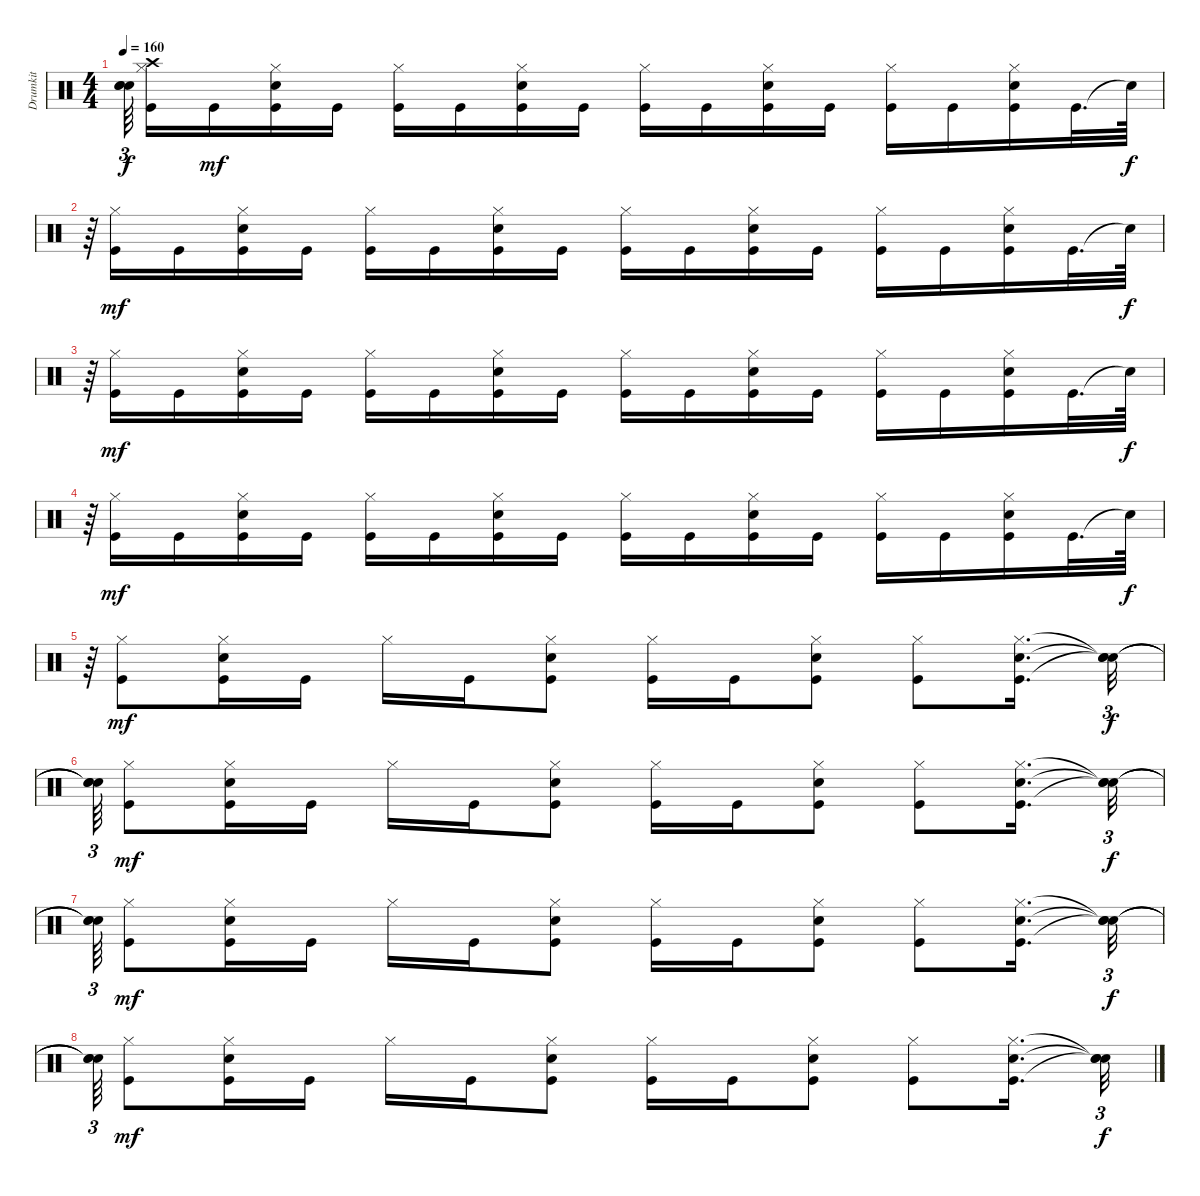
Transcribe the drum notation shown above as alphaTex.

\track ("Drumkit" "Drumkit") {instrument percussion}
\staff {score}
\articulation defaults
\ts (4 4)
\tempo 160
\clef neutral
\ks c
("Snare (hit)"{t} "Snare (hit)"{t} "Snare (hit)"{t}).64{tu (3 2) dy f beam splitsecondary} ("Crash high (hit)" "Kick (hit)" "Hi-Hat (closed)").16 "Kick (hit)".16{dy mf} ("Kick (hit)" "Snare (hit) 2" "Hi-Hat (closed)").16 "Kick (hit)".16 ("Kick (hit)" "Hi-Hat (closed)").16 "Kick (hit)".16 ("Kick (hit)" "Snare (hit) 2" "Hi-Hat (closed)").16 "Kick (hit)".16 ("Kick (hit)" "Hi-Hat (closed)").16 "Kick (hit)".16 ("Kick (hit)" "Snare (hit) 2" "Hi-Hat (closed)").16 "Kick (hit)".16 ("Kick (hit)" "Hi-Hat (closed)").16 "Kick (hit)".16 ("Kick (hit)" "Snare (hit) 2" "Hi-Hat (closed)").16 "Kick (hit)".32{d} "Snare (hit)"{t}.64{dy f} |
r.64{tu (3 2)} ("Kick (hit)" "Hi-Hat (closed)").16{dy mf} "Kick (hit)".16 ("Kick (hit)" "Snare (hit) 2" "Hi-Hat (closed)").16 "Kick (hit)".16 ("Kick (hit)" "Hi-Hat (closed)").16 "Kick (hit)".16 ("Kick (hit)" "Snare (hit) 2" "Hi-Hat (closed)").16 "Kick (hit)".16 ("Kick (hit)" "Hi-Hat (closed)").16 "Kick (hit)".16 ("Kick (hit)" "Snare (hit) 2" "Hi-Hat (closed)").16 "Kick (hit)".16 ("Kick (hit)" "Hi-Hat (closed)").16 "Kick (hit)".16 ("Kick (hit)" "Snare (hit) 2" "Hi-Hat (closed)").16 "Kick (hit)".32{d} "Snare (hit)"{t}.64{dy f} |
r.64{tu (3 2)} ("Kick (hit)" "Hi-Hat (closed)").16{dy mf} "Kick (hit)".16 ("Kick (hit)" "Snare (hit) 2" "Hi-Hat (closed)").16 "Kick (hit)".16 ("Kick (hit)" "Hi-Hat (closed)").16 "Kick (hit)".16 ("Kick (hit)" "Snare (hit) 2" "Hi-Hat (closed)").16 "Kick (hit)".16 ("Kick (hit)" "Hi-Hat (closed)").16 "Kick (hit)".16 ("Kick (hit)" "Snare (hit) 2" "Hi-Hat (closed)").16 "Kick (hit)".16 ("Kick (hit)" "Hi-Hat (closed)").16 "Kick (hit)".16 ("Kick (hit)" "Snare (hit) 2" "Hi-Hat (closed)").16 "Kick (hit)".32{d} "Snare (hit)"{t}.64{dy f} |
r.64{tu (3 2)} ("Kick (hit)" "Hi-Hat (closed)").16{dy mf} "Kick (hit)".16 ("Kick (hit)" "Snare (hit) 2" "Hi-Hat (closed)").16 "Kick (hit)".16 ("Kick (hit)" "Hi-Hat (closed)").16 "Kick (hit)".16 ("Kick (hit)" "Snare (hit) 2" "Hi-Hat (closed)").16 "Kick (hit)".16 ("Kick (hit)" "Hi-Hat (closed)").16 "Kick (hit)".16 ("Kick (hit)" "Snare (hit) 2" "Hi-Hat (closed)").16 "Kick (hit)".16 ("Kick (hit)" "Hi-Hat (closed)").16 "Kick (hit)".16 ("Kick (hit)" "Snare (hit) 2" "Hi-Hat (closed)").16 "Kick (hit)".32{d} "Snare (hit)"{t}.64{dy f} |
r.64{tu (3 2)} ("Kick (hit)" "Hi-Hat (closed)").8{dy mf} ("Kick (hit)" "Snare (hit) 2" "Hi-Hat (closed)").16 "Kick (hit)".16 "Hi-Hat (closed)".16 "Kick (hit)".16 ("Kick (hit)" "Snare (hit) 2" "Hi-Hat (closed)").8 ("Kick (hit)" "Hi-Hat (closed)").16 "Kick (hit)".16 ("Kick (hit)" "Snare (hit) 2" "Hi-Hat (closed)").8 ("Kick (hit)" "Hi-Hat (closed)").8 ("Kick (hit)" "Snare (hit) 2" "Hi-Hat (closed)").16{d} ("Snare (hit)"{t} "Snare (hit)"{t} "Snare (hit)"{t}).32{tu (3 2) dy f} |
("Snare (hit)"{t} "Snare (hit)"{t} "Snare (hit)"{t}).64{tu (3 2)} ("Kick (hit)" "Hi-Hat (closed)").8{dy mf} ("Kick (hit)" "Snare (hit) 2" "Hi-Hat (closed)").16 "Kick (hit)".16 "Hi-Hat (closed)".16 "Kick (hit)".16 ("Kick (hit)" "Snare (hit) 2" "Hi-Hat (closed)").8 ("Kick (hit)" "Hi-Hat (closed)").16 "Kick (hit)".16 ("Kick (hit)" "Snare (hit) 2" "Hi-Hat (closed)").8 ("Kick (hit)" "Hi-Hat (closed)").8 ("Kick (hit)" "Snare (hit) 2" "Hi-Hat (closed)").16{d} ("Snare (hit)"{t} "Snare (hit)"{t} "Snare (hit)"{t}).32{tu (3 2) dy f} |
("Snare (hit)"{t} "Snare (hit)"{t} "Snare (hit)"{t}).64{tu (3 2)} ("Kick (hit)" "Hi-Hat (closed)").8{dy mf} ("Kick (hit)" "Snare (hit) 2" "Hi-Hat (closed)").16 "Kick (hit)".16 "Hi-Hat (closed)".16 "Kick (hit)".16 ("Kick (hit)" "Snare (hit) 2" "Hi-Hat (closed)").8 ("Kick (hit)" "Hi-Hat (closed)").16 "Kick (hit)".16 ("Kick (hit)" "Snare (hit) 2" "Hi-Hat (closed)").8 ("Kick (hit)" "Hi-Hat (closed)").8 ("Kick (hit)" "Snare (hit) 2" "Hi-Hat (closed)").16{d} ("Snare (hit)"{t} "Snare (hit)"{t} "Snare (hit)"{t}).32{tu (3 2) dy f} |
("Snare (hit)"{t} "Snare (hit)"{t} "Snare (hit)"{t}).64{tu (3 2)} ("Kick (hit)" "Hi-Hat (closed)").8{dy mf} ("Kick (hit)" "Snare (hit) 2" "Hi-Hat (closed)").16 "Kick (hit)".16 "Hi-Hat (closed)".16 "Kick (hit)".16 ("Kick (hit)" "Snare (hit) 2" "Hi-Hat (closed)").8 ("Kick (hit)" "Hi-Hat (closed)").16 "Kick (hit)".16 ("Kick (hit)" "Snare (hit) 2" "Hi-Hat (closed)").8 ("Kick (hit)" "Hi-Hat (closed)").8 ("Kick (hit)" "Snare (hit) 2" "Hi-Hat (closed)").16{d} ("Snare (hit)"{t} "Snare (hit)"{t} "Snare (hit)"{t}).32{tu (3 2) dy f}
